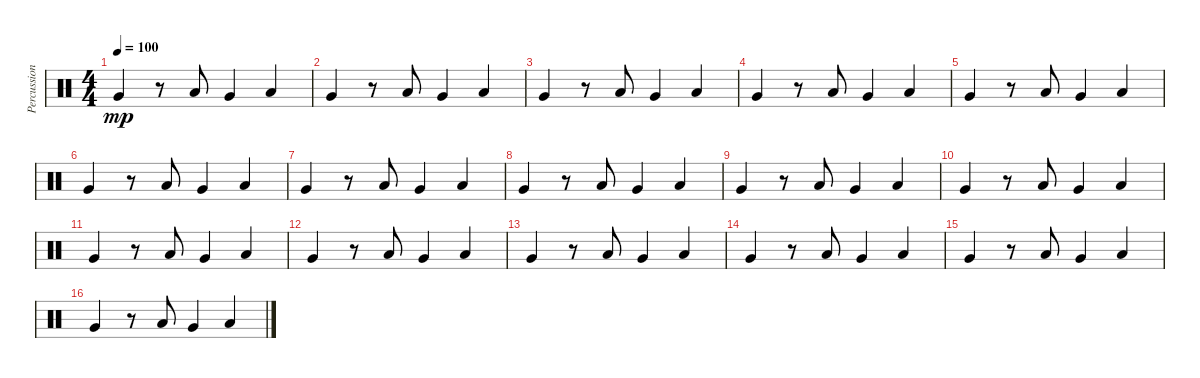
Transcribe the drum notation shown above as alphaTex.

\track ("Percussion" "Percussion") {instrument percussion}
\staff {score}
\articulation defaults
\ts (4 4)
\tempo 100
\clef neutral
\ks c "Very Low Tom (hit)".4{dy mp}
r.8 "Low Tom (hit)".8 "Very Low Tom (hit)".4 "Low Floor Tom (hit)".4 |
"Very Low Tom (hit)".4 r.8 "Low Tom (hit)".8 "Very Low Tom (hit)".4 "Low Floor Tom (hit)".4 |
"Very Low Tom (hit)".4 r.8 "Low Tom (hit)".8 "Very Low Tom (hit)".4 "Low Floor Tom (hit)".4 |
"Very Low Tom (hit)".4 r.8 "Low Tom (hit)".8 "Very Low Tom (hit)".4 "Low Floor Tom (hit)".4 |
"Very Low Tom (hit)".4 r.8 "Low Tom (hit)".8 "Very Low Tom (hit)".4 "Low Floor Tom (hit)".4 |
"Very Low Tom (hit)".4 r.8 "Low Tom (hit)".8 "Very Low Tom (hit)".4 "Low Floor Tom (hit)".4 |
"Very Low Tom (hit)".4 r.8 "Low Tom (hit)".8 "Very Low Tom (hit)".4 "Low Floor Tom (hit)".4 |
"Very Low Tom (hit)".4 r.8 "Low Tom (hit)".8 "Very Low Tom (hit)".4 "Low Floor Tom (hit)".4 |
"Very Low Tom (hit)".4 r.8 "Low Tom (hit)".8 "Very Low Tom (hit)".4 "Low Floor Tom (hit)".4 |
"Very Low Tom (hit)".4 r.8 "Low Tom (hit)".8 "Very Low Tom (hit)".4 "Low Floor Tom (hit)".4 |
"Very Low Tom (hit)".4 r.8 "Low Tom (hit)".8 "Very Low Tom (hit)".4 "Low Floor Tom (hit)".4 |
"Very Low Tom (hit)".4 r.8 "Low Tom (hit)".8 "Very Low Tom (hit)".4 "Low Floor Tom (hit)".4 |
"Very Low Tom (hit)".4 r.8 "Low Tom (hit)".8 "Very Low Tom (hit)".4 "Low Floor Tom (hit)".4 |
"Very Low Tom (hit)".4 r.8 "Low Tom (hit)".8 "Very Low Tom (hit)".4 "Low Floor Tom (hit)".4 |
"Very Low Tom (hit)".4 r.8 "Low Tom (hit)".8 "Very Low Tom (hit)".4 "Low Floor Tom (hit)".4 |
"Very Low Tom (hit)".4 r.8 "Low Tom (hit)".8 "Very Low Tom (hit)".4 "Low Floor Tom (hit)".4
